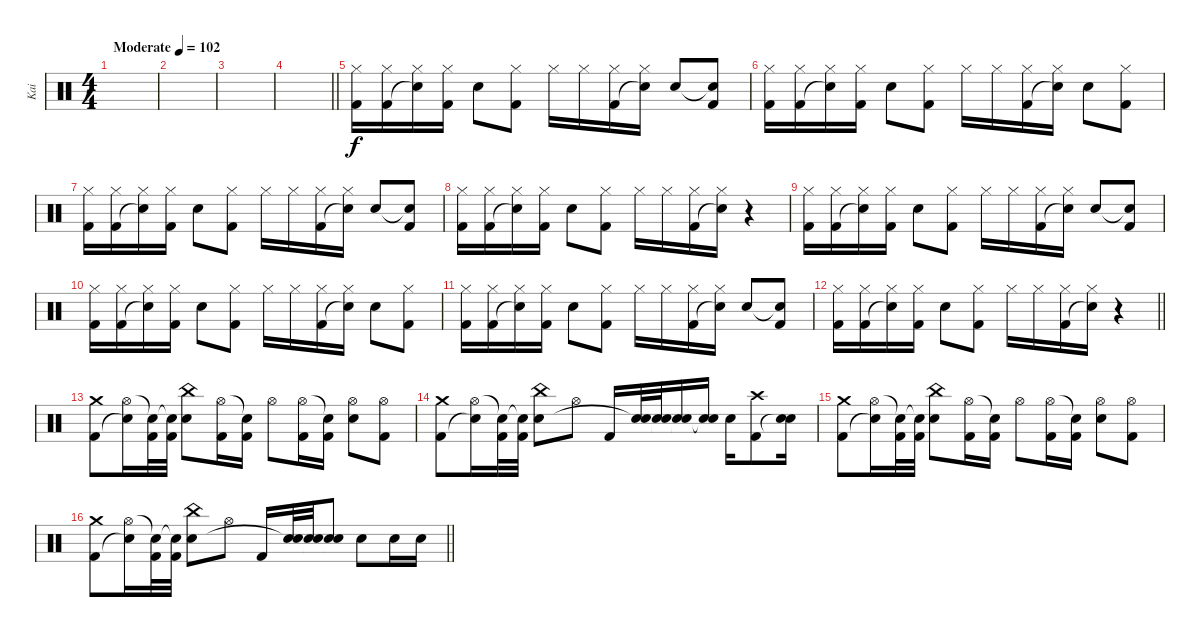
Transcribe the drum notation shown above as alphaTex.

\track ("Kai" "Kai") {instrument percussion}
\staff {score}
\articulation defaults
\ts (4 4)
\tempo (102 "Moderate")
\clef neutral
\ks c
|
|
|
\barLineRight lightlight
|
("Hi-Hat (closed)" "Kick (hit) 2").16{volume 15} ("Hi-Hat (closed)" "Kick (hit) 2").16 ("Hi-Hat (closed)" "Snare (hit)"{t}).16 ("Hi-Hat (closed)" "Kick (hit) 2").16 "Snare (hit) 2".8 ("Hi-Hat (closed)" "Kick (hit) 2").8 "Hi-Hat (closed)".16 "Hi-Hat (closed)".16 ("Hi-Hat (closed)" "Kick (hit) 2").16 ("Hi-Hat (closed)" "Snare (hit)"{t}).16 "Snare (hit) 2".8 ("Snare (hit)"{t} "Kick (hit) 2").8 |
("Hi-Hat (closed)" "Kick (hit) 2").16 ("Hi-Hat (closed)" "Kick (hit) 2").16 ("Hi-Hat (closed)" "Snare (hit)"{t}).16 ("Hi-Hat (closed)" "Kick (hit) 2").16 "Snare (hit) 2".8 ("Hi-Hat (closed)" "Kick (hit) 2").8 "Hi-Hat (closed)".16 "Hi-Hat (closed)".16 ("Hi-Hat (closed)" "Kick (hit) 2").16 ("Hi-Hat (closed)" "Snare (hit)"{t}).16 "Snare (hit) 2".8 ("Hi-Hat (closed)" "Kick (hit) 2").8 |
("Hi-Hat (closed)" "Kick (hit) 2").16 ("Hi-Hat (closed)" "Kick (hit) 2").16 ("Hi-Hat (closed)" "Snare (hit)"{t}).16 ("Hi-Hat (closed)" "Kick (hit) 2").16 "Snare (hit) 2".8 ("Hi-Hat (closed)" "Kick (hit) 2").8 "Hi-Hat (closed)".16 "Hi-Hat (closed)".16 ("Hi-Hat (closed)" "Kick (hit) 2").16 ("Hi-Hat (closed)" "Snare (hit)"{t}).16 "Snare (hit) 2".8 ("Snare (hit)"{t} "Kick (hit) 2").8 |
("Hi-Hat (closed)" "Kick (hit) 2").16 ("Hi-Hat (closed)" "Kick (hit) 2").16 ("Hi-Hat (closed)" "Snare (hit)"{t}).16 ("Hi-Hat (closed)" "Kick (hit) 2").16 "Snare (hit) 2".8 ("Hi-Hat (closed)" "Kick (hit) 2").8 "Hi-Hat (closed)".16 "Hi-Hat (closed)".16 ("Hi-Hat (closed)" "Kick (hit) 2").16 ("Hi-Hat (closed)" "Snare (hit)"{t}).16 r.4 |
("Hi-Hat (closed)" "Kick (hit) 2").16 ("Hi-Hat (closed)" "Kick (hit) 2").16 ("Hi-Hat (closed)" "Snare (hit)"{t}).16 ("Hi-Hat (closed)" "Kick (hit) 2").16 "Snare (hit) 2".8 ("Hi-Hat (closed)" "Kick (hit) 2").8 "Hi-Hat (closed)".16 "Hi-Hat (closed)".16 ("Hi-Hat (closed)" "Kick (hit) 2").16 ("Hi-Hat (closed)" "Snare (hit)"{t}).16 "Snare (hit) 2".8 ("Snare (hit)"{t} "Kick (hit) 2").8 |
("Hi-Hat (closed)" "Kick (hit) 2").16 ("Hi-Hat (closed)" "Kick (hit) 2").16 ("Hi-Hat (closed)" "Snare (hit)"{t}).16 ("Hi-Hat (closed)" "Kick (hit) 2").16 "Snare (hit) 2".8 ("Hi-Hat (closed)" "Kick (hit) 2").8 "Hi-Hat (closed)".16 "Hi-Hat (closed)".16 ("Hi-Hat (closed)" "Kick (hit) 2").16 ("Hi-Hat (closed)" "Snare (hit)"{t}).16 "Snare (hit) 2".8 ("Hi-Hat (closed)" "Kick (hit) 2").8 |
("Hi-Hat (closed)" "Kick (hit) 2").16 ("Hi-Hat (closed)" "Kick (hit) 2").16 ("Hi-Hat (closed)" "Snare (hit)"{t}).16 ("Hi-Hat (closed)" "Kick (hit) 2").16 "Snare (hit) 2".8 ("Hi-Hat (closed)" "Kick (hit) 2").8 "Hi-Hat (closed)".16 "Hi-Hat (closed)".16 ("Hi-Hat (closed)" "Kick (hit) 2").16 ("Hi-Hat (closed)" "Snare (hit)"{t}).16 "Snare (hit) 2".8 ("Snare (hit)"{t} "Kick (hit) 2").8 |
\barLineRight lightlight
("Hi-Hat (closed)" "Kick (hit) 2").16 ("Hi-Hat (closed)" "Kick (hit) 2").16 ("Hi-Hat (closed)" "Snare (hit)"{t}).16 ("Hi-Hat (closed)" "Kick (hit) 2").16 "Snare (hit) 2".8 ("Hi-Hat (closed)" "Kick (hit) 2").8 "Hi-Hat (closed)".16 "Hi-Hat (closed)".16 ("Hi-Hat (closed)" "Kick (hit) 2").16 ("Hi-Hat (closed)" "Snare (hit)"{t}).16 r.4 |
("Crash medium (hit)" "Kick (hit) 2").8 ("Hi-Hat (open)" "Snare (hit)"{t}).16 ("Snare (hit)"{t} "Kick (hit) 2").32 ("Snare (hit)"{t} "Kick (hit) 2").32 ("China (hit)" "Snare (hit) 2").8 ("Hi-Hat (open)" "Kick (hit) 2").16 ("Snare (hit)"{t} "Kick (hit) 2").16 "Hi-Hat (open)".8 ("Hi-Hat (open)" "Kick (hit) 2").16 ("Snare (hit)"{t} "Kick (hit) 2").16 ("Hi-Hat (open)" "Snare (hit) 2").8 ("Hi-Hat (open)" "Kick (hit) 2").8 |
("Crash medium (hit)" "Kick (hit) 2").8 ("Hi-Hat (open)" "Snare (hit)"{t}).16 ("Snare (hit)"{t} "Kick (hit) 2").32 ("Snare (hit)"{t} "Kick (hit) 2").32 ("China (hit)" "Snare (hit) 2").8 "Hi-Hat (open)".8 "Kick (hit) 2".16 ("Snare (hit) 2" "Snare (hit)"{t}).32 ("Snare (hit) 2" "Snare (hit)"{t}).32 ("Snare (hit) 2" "Snare (hit)"{t}).16 ("Snare (hit) 2" "Snare (hit)"{t}).16 "Snare (hit) 2".16 ("Crash high (hit)" "Kick (hit) 2").8 ("Snare (hit) 2" "Snare (hit)"{t}).16 |
("Crash medium (hit)" "Kick (hit) 2").8 ("Hi-Hat (open)" "Snare (hit)"{t}).16 ("Snare (hit)"{t} "Kick (hit) 2").32 ("Snare (hit)"{t} "Kick (hit) 2").32 ("China (hit)" "Snare (hit) 2").8 ("Hi-Hat (open)" "Kick (hit) 2").16 ("Snare (hit)"{t} "Kick (hit) 2").16 "Hi-Hat (open)".8 ("Hi-Hat (open)" "Kick (hit) 2").16 ("Snare (hit)"{t} "Kick (hit) 2").16 ("Hi-Hat (open)" "Snare (hit) 2").8 ("Hi-Hat (open)" "Kick (hit) 2").8 |
\barLineRight lightlight
("Crash medium (hit)" "Kick (hit) 2").8 ("Hi-Hat (open)" "Snare (hit)"{t}).16 ("Snare (hit)"{t} "Kick (hit) 2").32 ("Snare (hit)"{t} "Kick (hit) 2").32 ("China (hit)" "Snare (hit) 2").8 "Hi-Hat (open)".8 "Kick (hit) 2".16 ("Snare (hit) 2" "Snare (hit)"{t}).32 ("Snare (hit) 2" "Snare (hit)"{t}).32 ("Snare (hit) 2" "Snare (hit)"{t}).8 "Snare (hit) 2".8 "Snare (hit) 2".16 "Snare (hit) 2".16
